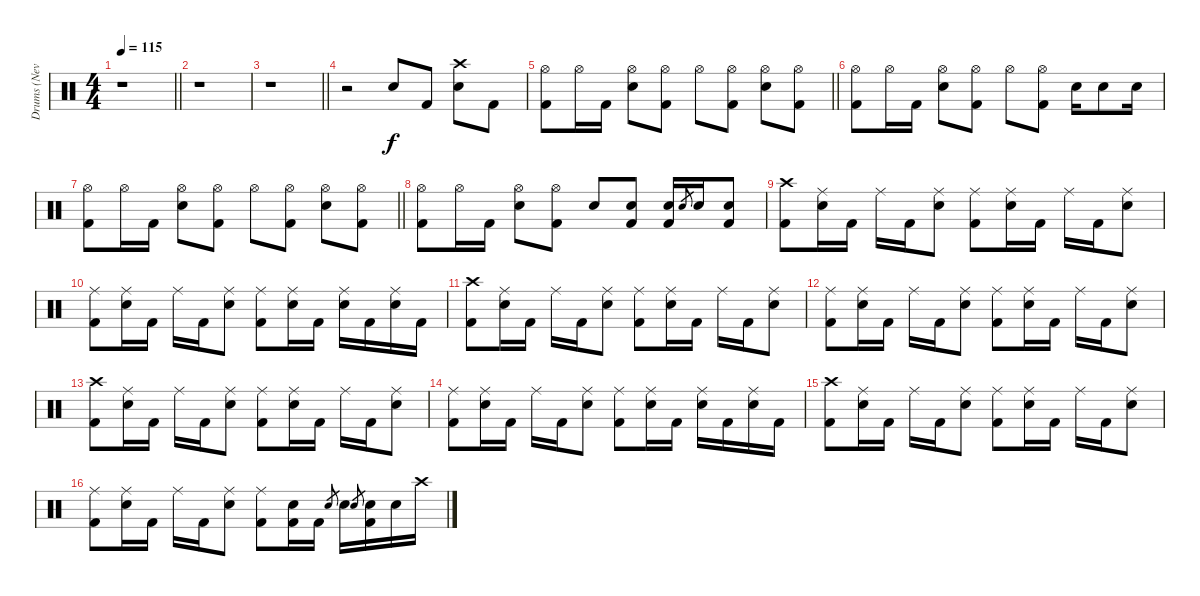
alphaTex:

\track ("Drums (Nevi)" "Drums (Nev") {instrument percussion}
\staff {score}
\articulation defaults
\ts (4 4)
\tempo 115
\clef neutral
\barLineRight lightlight
\ks c
r.1{dy f} |
r.1 |
\barLineRight lightlight
r.1 |
r.2 "Snare (hit)".8 "Kick (hit) 2".8 ("Snare (hit) 2" "Crash high (hit)").8 "Kick (hit) 2".8 |
\barLineRight lightlight
("Kick (hit) 2" "Hi-Hat (open)").8 "Hi-Hat (open)".16 "Kick (hit) 2".16 ("Snare (hit) 2" "Hi-Hat (open)").8 ("Kick (hit) 2" "Hi-Hat (open)").8 "Hi-Hat (open)".8 ("Kick (hit) 2" "Hi-Hat (open)").8 ("Snare (hit) 2" "Hi-Hat (open)").8 ("Kick (hit) 2" "Hi-Hat (open)").8 |
("Kick (hit) 2" "Hi-Hat (open)").8 "Hi-Hat (open)".16 "Kick (hit) 2".16 ("Snare (hit) 2" "Hi-Hat (open)").8 ("Kick (hit) 2" "Hi-Hat (open)").8 "Hi-Hat (open)".8 ("Kick (hit) 2" "Hi-Hat (open)").8 "Snare (hit) 2".16 "Snare (hit) 2".8 "Snare (hit) 2".16 |
\barLineRight lightlight
("Kick (hit) 2" "Hi-Hat (open)").8 "Hi-Hat (open)".16 "Kick (hit) 2".16 ("Snare (hit) 2" "Hi-Hat (open)").8 ("Kick (hit) 2" "Hi-Hat (open)").8 "Hi-Hat (open)".8 ("Kick (hit) 2" "Hi-Hat (open)").8 ("Snare (hit) 2" "Hi-Hat (open)").8 ("Kick (hit) 2" "Hi-Hat (open)").8 |
("Kick (hit) 2" "Hi-Hat (open)").8 "Hi-Hat (open)".16 "Kick (hit) 2".16 ("Snare (hit) 2" "Hi-Hat (open)").8 ("Kick (hit) 2" "Hi-Hat (open)").8 "Snare (hit) 2".8 ("Kick (hit) 2" "Snare (hit) 2").8 ("Kick (hit) 2" "Snare (hit) 2").16 "Snare (hit) 2".8{gr} "Snare (hit) 2".16 ("Kick (hit) 2" "Snare (hit) 2").8 |
("Kick (hit) 2" "Crash high (hit)").8 ("Snare (hit) 2" "Ride (middle)").16 "Kick (hit) 2".16 "Ride (middle)".16 "Kick (hit) 2".16 ("Snare (hit) 2" "Ride (middle)").8 ("Kick (hit) 2" "Ride (middle)").8 ("Snare (hit) 2" "Ride (middle)").16 "Kick (hit) 2".16 "Ride (middle)".16 "Kick (hit) 2".16 ("Snare (hit) 2" "Ride (middle)").8 |
("Kick (hit) 2" "Ride (middle)").8 ("Snare (hit) 2" "Ride (middle)").16 "Kick (hit) 2".16 "Ride (middle)".16 "Kick (hit) 2".16 ("Snare (hit) 2" "Ride (middle)").8 ("Kick (hit) 2" "Ride (middle)").8 ("Snare (hit) 2" "Ride (middle)").16 "Kick (hit) 2".16 ("Snare (hit) 2" "Ride (middle)").16 "Kick (hit) 2".16 ("Snare (hit) 2" "Ride (middle)").16 "Kick (hit) 2".16 |
("Kick (hit) 2" "Crash high (hit)").8 ("Snare (hit) 2" "Ride (middle)").16 "Kick (hit) 2".16 "Ride (middle)".16 "Kick (hit) 2".16 ("Snare (hit) 2" "Ride (middle)").8 ("Kick (hit) 2" "Ride (middle)").8 ("Snare (hit) 2" "Ride (middle)").16 "Kick (hit) 2".16 "Ride (middle)".16 "Kick (hit) 2".16 ("Snare (hit) 2" "Ride (middle)").8 |
("Kick (hit) 2" "Ride (middle)").8 ("Snare (hit) 2" "Ride (middle)").16 "Kick (hit) 2".16 "Ride (middle)".16 "Kick (hit) 2".16 ("Snare (hit) 2" "Ride (middle)").8 ("Kick (hit) 2" "Ride (middle)").8 ("Snare (hit) 2" "Ride (middle)").16 "Kick (hit) 2".16 "Ride (middle)".16 "Kick (hit) 2".16 ("Snare (hit) 2" "Ride (middle)").8 |
("Kick (hit) 2" "Crash high (hit)").8 ("Snare (hit) 2" "Ride (middle)").16 "Kick (hit) 2".16 "Ride (middle)".16 "Kick (hit) 2".16 ("Snare (hit) 2" "Ride (middle)").8 ("Kick (hit) 2" "Ride (middle)").8 ("Snare (hit) 2" "Ride (middle)").16 "Kick (hit) 2".16 "Ride (middle)".16 "Kick (hit) 2".16 ("Snare (hit) 2" "Ride (middle)").8 |
("Kick (hit) 2" "Ride (middle)").8 ("Snare (hit) 2" "Ride (middle)").16 "Kick (hit) 2".16 "Ride (middle)".16 "Kick (hit) 2".16 ("Snare (hit) 2" "Ride (middle)").8 ("Kick (hit) 2" "Ride (middle)").8 ("Snare (hit) 2" "Ride (middle)").16 "Kick (hit) 2".16 ("Snare (hit) 2" "Ride (middle)").16 "Kick (hit) 2".16 ("Snare (hit) 2" "Ride (middle)").16 "Kick (hit) 2".16 |
("Kick (hit) 2" "Crash high (hit)").8 ("Snare (hit) 2" "Ride (middle)").16 "Kick (hit) 2".16 "Ride (middle)".16 "Kick (hit) 2".16 ("Snare (hit) 2" "Ride (middle)").8 ("Kick (hit) 2" "Ride (middle)").8 ("Snare (hit) 2" "Ride (middle)").16 "Kick (hit) 2".16 "Ride (middle)".16 "Kick (hit) 2".16 ("Snare (hit) 2" "Ride (middle)").8 |
("Kick (hit) 2" "Ride (middle)").8 ("Snare (hit) 2" "Ride (middle)").16 "Kick (hit) 2".16 "Ride (middle)".16 "Kick (hit) 2".16 ("Snare (hit) 2" "Ride (middle)").8 ("Kick (hit) 2" "Ride (middle)").8 ("Kick (hit) 2" "Snare (hit) 2").16 "Kick (hit) 2".16 "Snare (hit) 2".8{gr} "Snare (hit) 2".16 "Snare (hit) 2".8{gr} ("Kick (hit) 2" "Snare (hit) 2").16 "Snare (hit) 2".16 "Crash high (hit)".16
